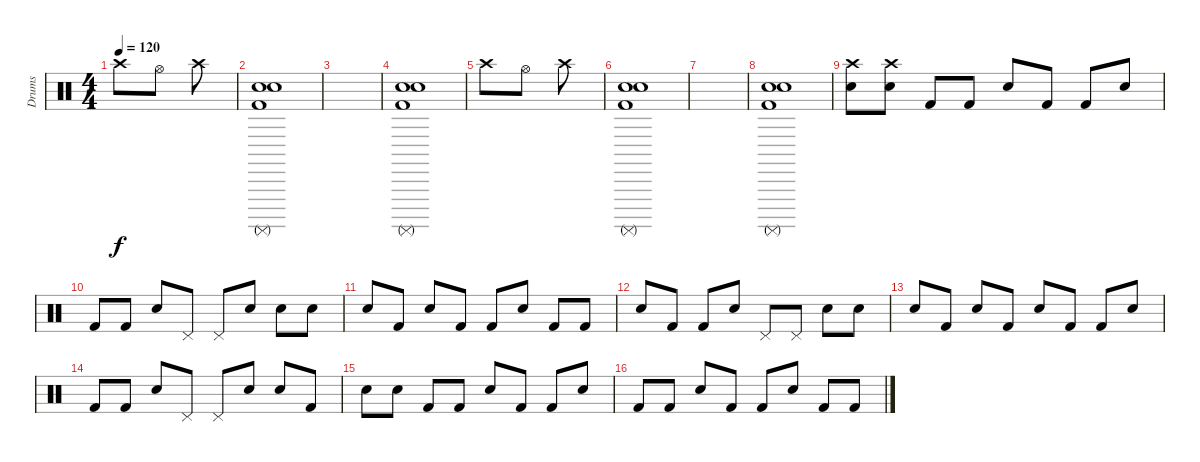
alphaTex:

\track ("Drums" "Drums") {instrument percussion}
\staff {score}
\articulation defaults
\ts (4 4)
\tempo 120
\clef neutral
\ks c "Crash high (hit)".8{dy f} "Hi-Hat (open)".8 "Crash high (hit)".8
|
("Kick (hit) 2" "Surdo (mute)" "Snare (hit) 2" "Snare (hit) 2").1 |
|
("Kick (hit) 2" "Surdo (mute)" "Snare (hit) 2" "Snare (hit) 2").1 |
"Crash high (hit)".8 "Hi-Hat (open)".8 "Crash high (hit)".8 |
("Kick (hit) 2" "Surdo (mute)" "Snare (hit) 2" "Snare (hit) 2").1 |
|
("Kick (hit) 2" "Surdo (mute)" "Snare (hit) 2" "Snare (hit) 2").1 |
("Snare (hit) 2" "Crash high (hit)").8 ("Snare (hit) 2" "Crash high (hit)").8 "Kick (hit) 2".8 "Kick (hit) 2".8 "Snare (hit) 2".8 "Kick (hit) 2".8 "Kick (hit) 2".8 "Snare (hit) 2".8 |
"Kick (hit) 2".8 "Kick (hit) 2".8 "Snare (hit) 2".8 "Pedal Hi-Hat (hit)".8 "Pedal Hi-Hat (hit)".8 "Snare (hit) 2".8 "Snare (hit) 2".8 "Snare (hit) 2".8 |
"Snare (hit) 2".8 "Kick (hit) 2".8 "Snare (hit) 2".8 "Kick (hit) 2".8 "Kick (hit) 2".8 "Snare (hit) 2".8 "Kick (hit) 2".8 "Kick (hit) 2".8 |
"Snare (hit) 2".8 "Kick (hit) 2".8 "Kick (hit) 2".8 "Snare (hit) 2".8 "Pedal Hi-Hat (hit)".8 "Pedal Hi-Hat (hit)".8 "Snare (hit) 2".8 "Snare (hit) 2".8 |
"Snare (hit) 2".8 "Kick (hit) 2".8 "Snare (hit) 2".8 "Kick (hit) 2".8 "Snare (hit) 2".8 "Kick (hit) 2".8 "Kick (hit) 2".8 "Snare (hit) 2".8 |
"Kick (hit) 2".8 "Kick (hit) 2".8 "Snare (hit) 2".8 "Pedal Hi-Hat (hit)".8 "Pedal Hi-Hat (hit)".8 "Snare (hit) 2".8 "Snare (hit) 2".8 "Kick (hit) 2".8 |
"Snare (hit) 2".8 "Snare (hit) 2".8 "Kick (hit) 2".8 "Kick (hit) 2".8 "Snare (hit) 2".8 "Kick (hit) 2".8 "Kick (hit) 2".8 "Snare (hit) 2".8 |
"Kick (hit) 2".8 "Kick (hit) 2".8 "Snare (hit) 2".8 "Kick (hit) 2".8 "Kick (hit) 2".8 "Snare (hit) 2".8 "Kick (hit) 2".8 "Kick (hit) 2".8
